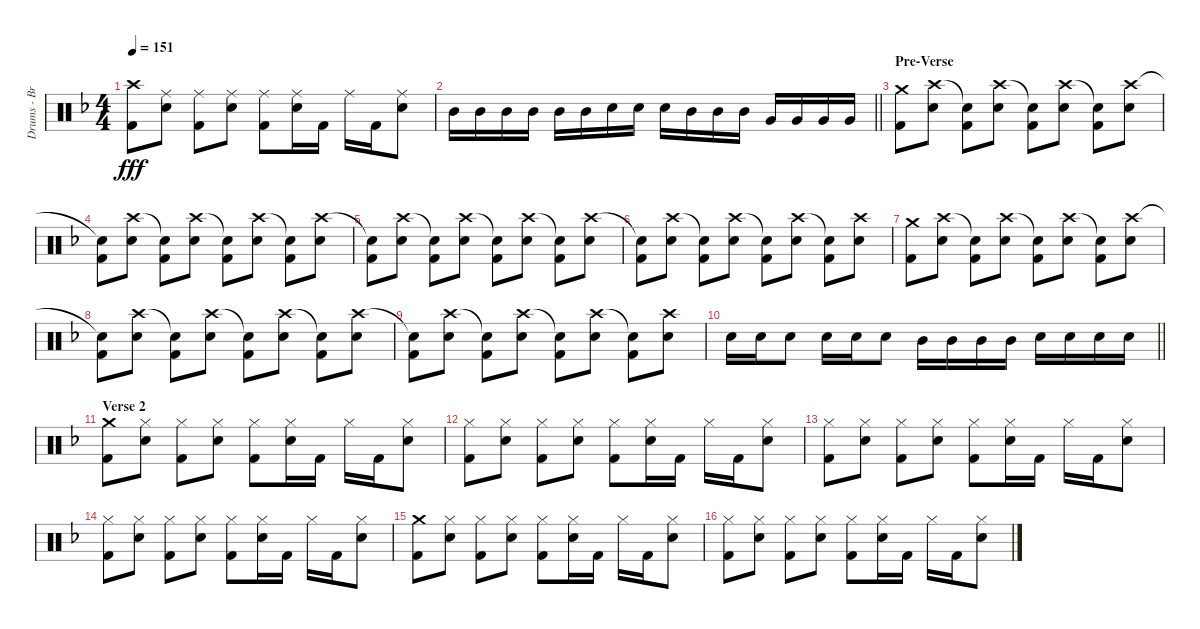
\track ("Drums - Brooks Wackerman" "Drums - Br") {instrument percussion}
\staff {score}
\articulation defaults
\ts (4 4)
\tempo 151
\clef neutral
\ks f
("Crash high (hit)" "Kick (hit) 2").8{dy fff} ("Ride (middle)" "Snare (hit) 2").8 ("Ride (middle)" "Kick (hit) 2").8 ("Ride (middle)" "Snare (hit) 2").8 ("Ride (middle)" "Kick (hit) 2").8 ("Ride (middle)" "Snare (hit) 2").16 "Kick (hit) 2".16 "Ride (middle)".16 "Kick (hit) 2".16 ("Ride (middle)" "Snare (hit) 2").8 |
\barLineRight lightlight "Mid Tom (hit)".16 "Mid Tom (hit)".16 "Mid Tom (hit)".16 "Mid Tom (hit)".16 "Mid Tom (hit)".16 "Mid Tom (hit)".16 "Snare (hit) 2".16 "Snare (hit) 2".16 "Snare (hit) 2".16 "Mid Tom (hit)".16 "Mid Tom (hit)".16 "Mid Tom (hit)".16 "Very Low Tom (hit)".16 "Very Low Tom (hit)".16 "Very Low Tom (hit)".16 "Very Low Tom (hit)".16
|
\section ("" "Pre-Verse")
("Crash medium (hit)" "Kick (hit) 2").8 ("Crash high (hit)" "Snare (hit) 2").8 ("Snare (hit)"{t} "Kick (hit) 2").8 ("Crash high (hit)" "Snare (hit) 2").8 ("Snare (hit)"{t} "Kick (hit) 2").8 ("Crash high (hit)" "Snare (hit) 2").8 ("Snare (hit)"{t} "Kick (hit) 2").8 ("Crash high (hit)" "Snare (hit) 2").8 |
("Snare (hit)"{t} "Kick (hit) 2").8 ("Crash high (hit)" "Snare (hit) 2").8 ("Snare (hit)"{t} "Kick (hit) 2").8 ("Crash high (hit)" "Snare (hit) 2").8 ("Snare (hit)"{t} "Kick (hit) 2").8 ("Crash high (hit)" "Snare (hit) 2").8 ("Snare (hit)"{t} "Kick (hit) 2").8 ("Crash high (hit)" "Snare (hit) 2").8 |
("Snare (hit)"{t} "Kick (hit) 2").8 ("Crash high (hit)" "Snare (hit) 2").8 ("Snare (hit)"{t} "Kick (hit) 2").8 ("Crash high (hit)" "Snare (hit) 2").8 ("Snare (hit)"{t} "Kick (hit) 2").8 ("Crash high (hit)" "Snare (hit) 2").8 ("Snare (hit)"{t} "Kick (hit) 2").8 ("Crash high (hit)" "Snare (hit) 2").8 |
("Snare (hit)"{t} "Kick (hit) 2").8 ("Crash high (hit)" "Snare (hit) 2").8 ("Snare (hit)"{t} "Kick (hit) 2").8 ("Crash high (hit)" "Snare (hit) 2").8 ("Snare (hit)"{t} "Kick (hit) 2").8 ("Crash high (hit)" "Snare (hit) 2").8 ("Snare (hit)"{t} "Kick (hit) 2").8 ("Crash high (hit)" "Snare (hit) 2").8 |
("Crash medium (hit)" "Kick (hit) 2").8 ("Crash high (hit)" "Snare (hit) 2").8 ("Snare (hit)"{t} "Kick (hit) 2").8 ("Crash high (hit)" "Snare (hit) 2").8 ("Snare (hit)"{t} "Kick (hit) 2").8 ("Crash high (hit)" "Snare (hit) 2").8 ("Snare (hit)"{t} "Kick (hit) 2").8 ("Crash high (hit)" "Snare (hit) 2").8 |
("Snare (hit)"{t} "Kick (hit) 2").8 ("Crash high (hit)" "Snare (hit) 2").8 ("Snare (hit)"{t} "Kick (hit) 2").8 ("Crash high (hit)" "Snare (hit) 2").8 ("Snare (hit)"{t} "Kick (hit) 2").8 ("Crash high (hit)" "Snare (hit) 2").8 ("Snare (hit)"{t} "Kick (hit) 2").8 ("Crash high (hit)" "Snare (hit) 2").8 |
("Snare (hit)"{t} "Kick (hit) 2").8 ("Crash high (hit)" "Snare (hit) 2").8 ("Snare (hit)"{t} "Kick (hit) 2").8 ("Crash high (hit)" "Snare (hit) 2").8 ("Snare (hit)"{t} "Kick (hit) 2").8 ("Crash high (hit)" "Snare (hit) 2").8 ("Snare (hit)"{t} "Kick (hit) 2").8 ("Crash high (hit)" "Snare (hit) 2").8 |
\barLineRight lightlight "Snare (hit) 2".16 "Snare (hit) 2".16 "Snare (hit) 2".8 "Snare (hit) 2".16 "Snare (hit) 2".16 "Snare (hit) 2".8 "Mid Tom (hit)".16 "Mid Tom (hit)".16 "Mid Tom (hit)".16 "Mid Tom (hit)".16 "Snare (hit) 2".16 "Snare (hit) 2".16 "Snare (hit) 2".16 "Snare (hit) 2".16
|
\section ("" "Verse 2")
("Crash medium (hit)" "Kick (hit) 2").8 ("Hi-Hat (closed)" "Snare (hit) 2").8 ("Hi-Hat (closed)" "Kick (hit) 2").8 ("Hi-Hat (closed)" "Snare (hit) 2").8 ("Hi-Hat (closed)" "Kick (hit) 2").8 ("Hi-Hat (closed)" "Snare (hit) 2").16 "Kick (hit) 2".16 "Hi-Hat (closed)".16 "Kick (hit) 2".16 ("Hi-Hat (closed)" "Snare (hit) 2").8 |
("Hi-Hat (closed)" "Kick (hit) 2").8 ("Hi-Hat (closed)" "Snare (hit) 2").8 ("Hi-Hat (closed)" "Kick (hit) 2").8 ("Hi-Hat (closed)" "Snare (hit) 2").8 ("Hi-Hat (closed)" "Kick (hit) 2").8 ("Hi-Hat (closed)" "Snare (hit) 2").16 "Kick (hit) 2".16 "Hi-Hat (closed)".16 "Kick (hit) 2".16 ("Hi-Hat (closed)" "Snare (hit) 2").8 |
("Hi-Hat (closed)" "Kick (hit) 2").8 ("Hi-Hat (closed)" "Snare (hit) 2").8 ("Hi-Hat (closed)" "Kick (hit) 2").8 ("Hi-Hat (closed)" "Snare (hit) 2").8 ("Hi-Hat (closed)" "Kick (hit) 2").8 ("Hi-Hat (closed)" "Snare (hit) 2").16 "Kick (hit) 2".16 "Hi-Hat (closed)".16 "Kick (hit) 2".16 ("Hi-Hat (closed)" "Snare (hit) 2").8 |
("Hi-Hat (closed)" "Kick (hit) 2").8 ("Hi-Hat (closed)" "Snare (hit) 2").8 ("Hi-Hat (closed)" "Kick (hit) 2").8 ("Hi-Hat (closed)" "Snare (hit) 2").8 ("Hi-Hat (closed)" "Kick (hit) 2").8 ("Hi-Hat (closed)" "Snare (hit) 2").16 "Kick (hit) 2".16 "Hi-Hat (closed)".16 "Kick (hit) 2".16 ("Hi-Hat (closed)" "Snare (hit) 2").8 |
("Crash medium (hit)" "Kick (hit) 2").8 ("Hi-Hat (closed)" "Snare (hit) 2").8 ("Hi-Hat (closed)" "Kick (hit) 2").8 ("Hi-Hat (closed)" "Snare (hit) 2").8 ("Hi-Hat (closed)" "Kick (hit) 2").8 ("Hi-Hat (closed)" "Snare (hit) 2").16 "Kick (hit) 2".16 "Hi-Hat (closed)".16 "Kick (hit) 2".16 ("Hi-Hat (closed)" "Snare (hit) 2").8 |
("Hi-Hat (closed)" "Kick (hit) 2").8 ("Hi-Hat (closed)" "Snare (hit) 2").8 ("Hi-Hat (closed)" "Kick (hit) 2").8 ("Hi-Hat (closed)" "Snare (hit) 2").8 ("Hi-Hat (closed)" "Kick (hit) 2").8 ("Hi-Hat (closed)" "Snare (hit) 2").16 "Kick (hit) 2".16 "Hi-Hat (closed)".16 "Kick (hit) 2".16 ("Hi-Hat (closed)" "Snare (hit) 2").8
